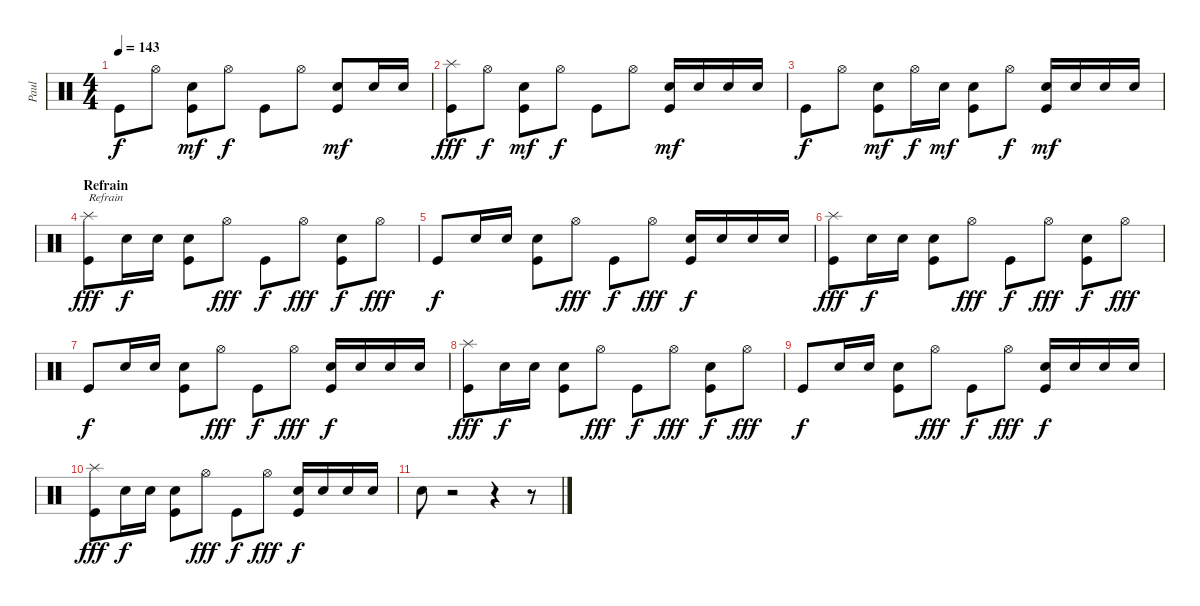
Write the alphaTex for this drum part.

\track ("Paul" "Paul") {instrument percussion}
\staff {score}
\articulation defaults
\ts (4 4)
\tempo 143
\clef neutral
\ks c "Kick (hit)".8{dy f} "Hi-Hat (open)".8
("Kick (hit)" "Electric Snare (hit)").8{dy mf} "Hi-Hat (open)".8{dy f} "Kick (hit)".8 "Hi-Hat (open)".8 ("Kick (hit)" "Electric Snare (hit)").8{dy mf} "Electric Snare (hit)".16 "Electric Snare (hit)".16 |
("Kick (hit)" "Splash (hit)").8{dy fff} "Hi-Hat (open)".8{dy f} ("Kick (hit)" "Electric Snare (hit)").8{dy mf} "Hi-Hat (open)".8{dy f} "Kick (hit)".8 "Hi-Hat (open)".8 ("Kick (hit)" "Electric Snare (hit)").16{dy mf} "Electric Snare (hit)".16 "Electric Snare (hit)".16 "Electric Snare (hit)".16 |
"Kick (hit)".8{dy f} "Hi-Hat (open)".8 ("Kick (hit)" "Electric Snare (hit)").8{dy mf} "Hi-Hat (open)".16{dy f} "Electric Snare (hit)".16{dy mf} ("Kick (hit)" "Electric Snare (hit)").8 "Hi-Hat (open)".8{dy f} ("Kick (hit)" "Electric Snare (hit)").16{dy mf} "Electric Snare (hit)".16 "Electric Snare (hit)".16 "Electric Snare (hit)".16 |
\section ("" "Refrain")
("Splash (hit)" "Kick (hit)").8{txt "Refrain" dy fff} "Electric Snare (hit)".16{dy f} "Electric Snare (hit)".16 ("Kick (hit)" "Electric Snare (hit)").8 "Hi-Hat (open)".8{dy fff} "Kick (hit)".8{dy f} "Hi-Hat (open)".8{dy fff} ("Kick (hit)" "Electric Snare (hit)").8{dy f} "Hi-Hat (open)".8{dy fff} |
"Kick (hit)".8{dy f} "Electric Snare (hit)".16 "Electric Snare (hit)".16 ("Kick (hit)" "Electric Snare (hit)").8 "Hi-Hat (open)".8{dy fff} "Kick (hit)".8{dy f} "Hi-Hat (open)".8{dy fff} ("Kick (hit)" "Electric Snare (hit)").16{dy f} "Electric Snare (hit)".16 "Electric Snare (hit)".16 "Electric Snare (hit)".16 |
("Splash (hit)" "Kick (hit)").8{dy fff} "Electric Snare (hit)".16{dy f} "Electric Snare (hit)".16 ("Kick (hit)" "Electric Snare (hit)").8 "Hi-Hat (open)".8{dy fff} "Kick (hit)".8{dy f} "Hi-Hat (open)".8{dy fff} ("Kick (hit)" "Electric Snare (hit)").8{dy f} "Hi-Hat (open)".8{dy fff} |
"Kick (hit)".8{dy f} "Electric Snare (hit)".16 "Electric Snare (hit)".16 ("Kick (hit)" "Electric Snare (hit)").8 "Hi-Hat (open)".8{dy fff} "Kick (hit)".8{dy f} "Hi-Hat (open)".8{dy fff} ("Kick (hit)" "Electric Snare (hit)").16{dy f} "Electric Snare (hit)".16 "Electric Snare (hit)".16 "Electric Snare (hit)".16 |
("Splash (hit)" "Kick (hit)").8{dy fff} "Electric Snare (hit)".16{dy f} "Electric Snare (hit)".16 ("Kick (hit)" "Electric Snare (hit)").8 "Hi-Hat (open)".8{dy fff} "Kick (hit)".8{dy f} "Hi-Hat (open)".8{dy fff} ("Kick (hit)" "Electric Snare (hit)").8{dy f} "Hi-Hat (open)".8{dy fff} |
"Kick (hit)".8{dy f} "Electric Snare (hit)".16 "Electric Snare (hit)".16 ("Kick (hit)" "Electric Snare (hit)").8 "Hi-Hat (open)".8{dy fff} "Kick (hit)".8{dy f} "Hi-Hat (open)".8{dy fff} ("Kick (hit)" "Electric Snare (hit)").16{dy f} "Electric Snare (hit)".16 "Electric Snare (hit)".16 "Electric Snare (hit)".16 |
("Splash (hit)" "Kick (hit)").8{dy fff} "Electric Snare (hit)".16{dy f} "Electric Snare (hit)".16 ("Kick (hit)" "Electric Snare (hit)").8 "Hi-Hat (open)".8{dy fff} "Kick (hit)".8{dy f} "Hi-Hat (open)".8{dy fff} ("Kick (hit)" "Electric Snare (hit)").16{dy f} "Electric Snare (hit)".16 "Electric Snare (hit)".16 "Electric Snare (hit)".16 |
"Electric Snare (hit)".8 r.2 r.4 r.8
